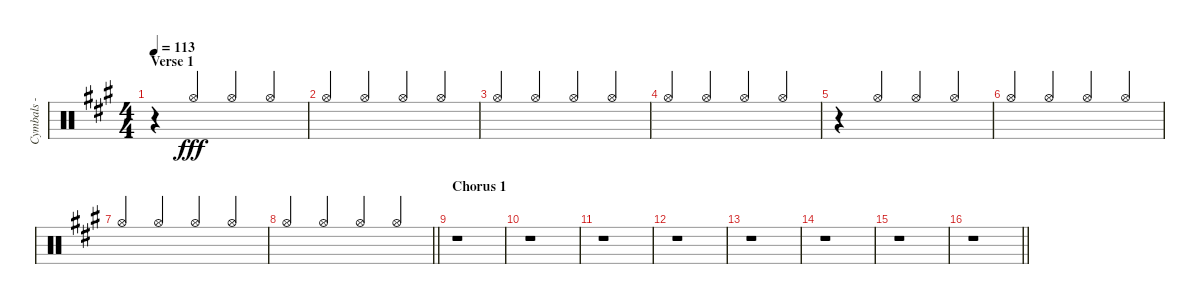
\track ("Cymbals - hi-hat" "Cymbals - ") {instrument percussion}
\staff {score}
\articulation defaults
\ts (4 4)
\section ("" "Verse 1")
\tempo 113
\clef neutral
\ks f#minor
r.4{dy fff volume 5} "Hi-Hat (open)".4{beam Up} "Hi-Hat (open)".4{beam Up} "Hi-Hat (open)".4{beam Up} |
"Hi-Hat (open)".4{beam Up} "Hi-Hat (open)".4{beam Up} "Hi-Hat (open)".4{beam Up} "Hi-Hat (open)".4{beam Up} |
"Hi-Hat (open)".4{beam Up} "Hi-Hat (open)".4{beam Up} "Hi-Hat (open)".4{beam Up} "Hi-Hat (open)".4{beam Up} |
"Hi-Hat (open)".4{beam Up} "Hi-Hat (open)".4{beam Up} "Hi-Hat (open)".4{beam Up} "Hi-Hat (open)".4{beam Up} |
r.4 "Hi-Hat (open)".4{beam Up} "Hi-Hat (open)".4{beam Up} "Hi-Hat (open)".4{beam Up} |
"Hi-Hat (open)".4{beam Up} "Hi-Hat (open)".4{beam Up} "Hi-Hat (open)".4{beam Up} "Hi-Hat (open)".4{beam Up} |
"Hi-Hat (open)".4{beam Up} "Hi-Hat (open)".4{beam Up} "Hi-Hat (open)".4{beam Up} "Hi-Hat (open)".4{beam Up} |
\barLineRight lightlight "Hi-Hat (open)".4{beam Up} "Hi-Hat (open)".4{beam Up} "Hi-Hat (open)".4{beam Up} "Hi-Hat (open)".4{beam Up}
|
\section ("" "Chorus 1")
r.1 |
r.1 |
r.1 |
r.1 |
r.1 |
r.1 |
r.1 |
\barLineRight lightlight
r.1
